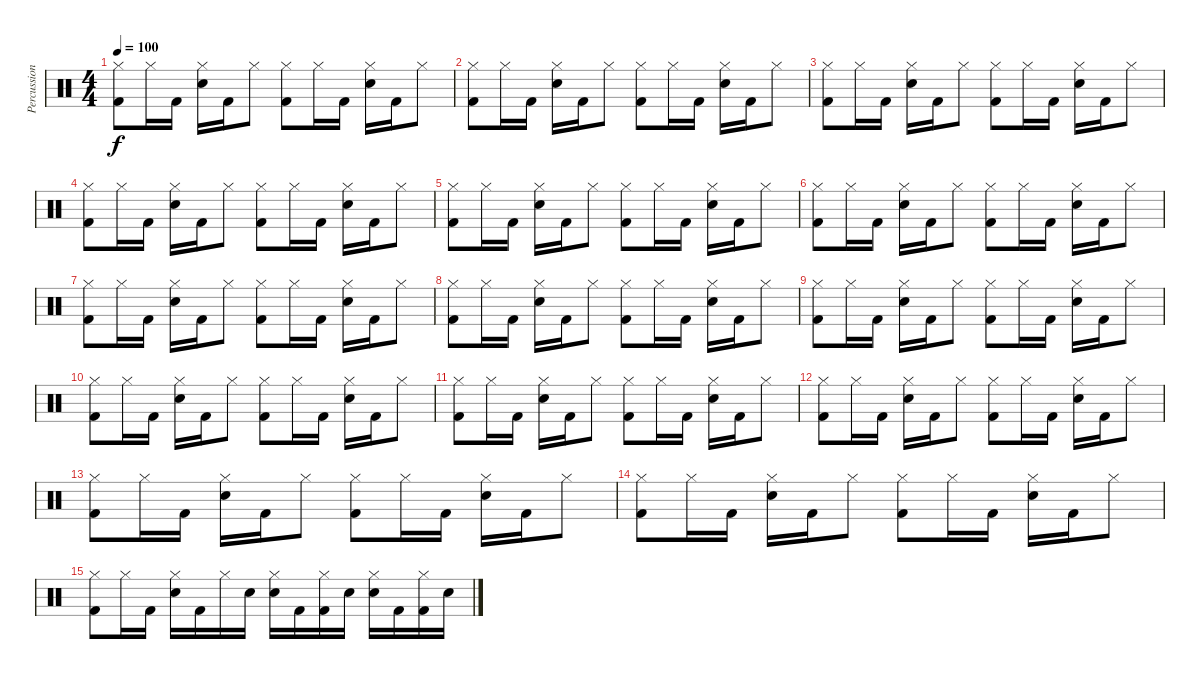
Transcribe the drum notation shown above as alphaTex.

\track ("Percussions" "Percussion") {instrument percussion}
\staff {score}
\articulation defaults
\ts (4 4)
\tempo 100
\clef neutral
\ks c
("Hi-Hat (closed)" "Kick (hit) 2").8{dy f} "Hi-Hat (closed)".16 "Kick (hit) 2".16 ("Electric Snare (hit)" "Hi-Hat (closed)").16 "Kick (hit) 2".16 "Hi-Hat (closed)".8 ("Hi-Hat (closed)" "Kick (hit) 2").8 "Hi-Hat (closed)".16 "Kick (hit) 2".16 ("Electric Snare (hit)" "Hi-Hat (closed)").16 "Kick (hit) 2".16 "Hi-Hat (closed)".8 |
("Hi-Hat (closed)" "Kick (hit) 2").8 "Hi-Hat (closed)".16 "Kick (hit) 2".16 ("Electric Snare (hit)" "Hi-Hat (closed)").16 "Kick (hit) 2".16 "Hi-Hat (closed)".8 ("Hi-Hat (closed)" "Kick (hit) 2").8 "Hi-Hat (closed)".16 "Kick (hit) 2".16 ("Electric Snare (hit)" "Hi-Hat (closed)").16 "Kick (hit) 2".16 "Hi-Hat (closed)".8 |
("Hi-Hat (closed)" "Kick (hit) 2").8 "Hi-Hat (closed)".16 "Kick (hit) 2".16 ("Electric Snare (hit)" "Hi-Hat (closed)").16 "Kick (hit) 2".16 "Hi-Hat (closed)".8 ("Hi-Hat (closed)" "Kick (hit) 2").8 "Hi-Hat (closed)".16 "Kick (hit) 2".16 ("Electric Snare (hit)" "Hi-Hat (closed)").16 "Kick (hit) 2".16 "Hi-Hat (closed)".8 |
("Hi-Hat (closed)" "Kick (hit) 2").8 "Hi-Hat (closed)".16 "Kick (hit) 2".16 ("Electric Snare (hit)" "Hi-Hat (closed)").16 "Kick (hit) 2".16 "Hi-Hat (closed)".8 ("Hi-Hat (closed)" "Kick (hit) 2").8 "Hi-Hat (closed)".16 "Kick (hit) 2".16 ("Electric Snare (hit)" "Hi-Hat (closed)").16 "Kick (hit) 2".16 "Hi-Hat (closed)".8 |
("Hi-Hat (closed)" "Kick (hit) 2").8 "Hi-Hat (closed)".16 "Kick (hit) 2".16 ("Electric Snare (hit)" "Hi-Hat (closed)").16 "Kick (hit) 2".16 "Hi-Hat (closed)".8 ("Hi-Hat (closed)" "Kick (hit) 2").8 "Hi-Hat (closed)".16 "Kick (hit) 2".16 ("Electric Snare (hit)" "Hi-Hat (closed)").16 "Kick (hit) 2".16 "Hi-Hat (closed)".8 |
("Hi-Hat (closed)" "Kick (hit) 2").8 "Hi-Hat (closed)".16 "Kick (hit) 2".16 ("Electric Snare (hit)" "Hi-Hat (closed)").16 "Kick (hit) 2".16 "Hi-Hat (closed)".8 ("Hi-Hat (closed)" "Kick (hit) 2").8 "Hi-Hat (closed)".16 "Kick (hit) 2".16 ("Electric Snare (hit)" "Hi-Hat (closed)").16 "Kick (hit) 2".16 "Hi-Hat (closed)".8 |
("Hi-Hat (closed)" "Kick (hit) 2").8 "Hi-Hat (closed)".16 "Kick (hit) 2".16 ("Electric Snare (hit)" "Hi-Hat (closed)").16 "Kick (hit) 2".16 "Hi-Hat (closed)".8 ("Hi-Hat (closed)" "Kick (hit) 2").8 "Hi-Hat (closed)".16 "Kick (hit) 2".16 ("Electric Snare (hit)" "Hi-Hat (closed)").16 "Kick (hit) 2".16 "Hi-Hat (closed)".8 |
("Hi-Hat (closed)" "Kick (hit) 2").8 "Hi-Hat (closed)".16 "Kick (hit) 2".16 ("Electric Snare (hit)" "Hi-Hat (closed)").16 "Kick (hit) 2".16 "Hi-Hat (closed)".8 ("Hi-Hat (closed)" "Kick (hit) 2").8 "Hi-Hat (closed)".16 "Kick (hit) 2".16 ("Electric Snare (hit)" "Hi-Hat (closed)").16 "Kick (hit) 2".16 "Hi-Hat (closed)".8 |
("Hi-Hat (closed)" "Kick (hit) 2").8 "Hi-Hat (closed)".16 "Kick (hit) 2".16 ("Electric Snare (hit)" "Hi-Hat (closed)").16 "Kick (hit) 2".16 "Hi-Hat (closed)".8 ("Hi-Hat (closed)" "Kick (hit) 2").8 "Hi-Hat (closed)".16 "Kick (hit) 2".16 ("Electric Snare (hit)" "Hi-Hat (closed)").16 "Kick (hit) 2".16 "Hi-Hat (closed)".8 |
("Hi-Hat (closed)" "Kick (hit) 2").8 "Hi-Hat (closed)".16 "Kick (hit) 2".16 ("Electric Snare (hit)" "Hi-Hat (closed)").16 "Kick (hit) 2".16 "Hi-Hat (closed)".8 ("Hi-Hat (closed)" "Kick (hit) 2").8 "Hi-Hat (closed)".16 "Kick (hit) 2".16 ("Electric Snare (hit)" "Hi-Hat (closed)").16 "Kick (hit) 2".16 "Hi-Hat (closed)".8 |
("Hi-Hat (closed)" "Kick (hit) 2").8 "Hi-Hat (closed)".16 "Kick (hit) 2".16 ("Electric Snare (hit)" "Hi-Hat (closed)").16 "Kick (hit) 2".16 "Hi-Hat (closed)".8 ("Hi-Hat (closed)" "Kick (hit) 2").8 "Hi-Hat (closed)".16 "Kick (hit) 2".16 ("Electric Snare (hit)" "Hi-Hat (closed)").16 "Kick (hit) 2".16 "Hi-Hat (closed)".8 |
("Hi-Hat (closed)" "Kick (hit) 2").8 "Hi-Hat (closed)".16 "Kick (hit) 2".16 ("Electric Snare (hit)" "Hi-Hat (closed)").16 "Kick (hit) 2".16 "Hi-Hat (closed)".8 ("Hi-Hat (closed)" "Kick (hit) 2").8 "Hi-Hat (closed)".16 "Kick (hit) 2".16 ("Electric Snare (hit)" "Hi-Hat (closed)").16 "Kick (hit) 2".16 "Hi-Hat (closed)".8 |
("Hi-Hat (closed)" "Kick (hit) 2").8 "Hi-Hat (closed)".16 "Kick (hit) 2".16 ("Electric Snare (hit)" "Hi-Hat (closed)").16 "Kick (hit) 2".16 "Hi-Hat (closed)".8 ("Hi-Hat (closed)" "Kick (hit) 2").8 "Hi-Hat (closed)".16 "Kick (hit) 2".16 ("Electric Snare (hit)" "Hi-Hat (closed)").16 "Kick (hit) 2".16 "Hi-Hat (closed)".8 |
("Hi-Hat (closed)" "Kick (hit) 2").8 "Hi-Hat (closed)".16 "Kick (hit) 2".16 ("Electric Snare (hit)" "Hi-Hat (closed)").16 "Kick (hit) 2".16 "Hi-Hat (closed)".8 ("Hi-Hat (closed)" "Kick (hit) 2").8 "Hi-Hat (closed)".16 "Kick (hit) 2".16 ("Electric Snare (hit)" "Hi-Hat (closed)").16 "Kick (hit) 2".16 "Hi-Hat (closed)".8 |
("Hi-Hat (closed)" "Kick (hit) 2").8 "Hi-Hat (closed)".16 "Kick (hit) 2".16 ("Electric Snare (hit)" "Hi-Hat (closed)").16 "Kick (hit) 2".16 "Hi-Hat (closed)".16 "Electric Snare (hit)".16 ("Electric Snare (hit)" "Hi-Hat (closed)").16 "Kick (hit) 2".16 ("Hi-Hat (closed)" "Kick (hit) 2").16 "Electric Snare (hit)".16 ("Electric Snare (hit)" "Hi-Hat (closed)").16 "Kick (hit) 2".16 ("Hi-Hat (closed)" "Kick (hit) 2").16 "Electric Snare (hit)".16
